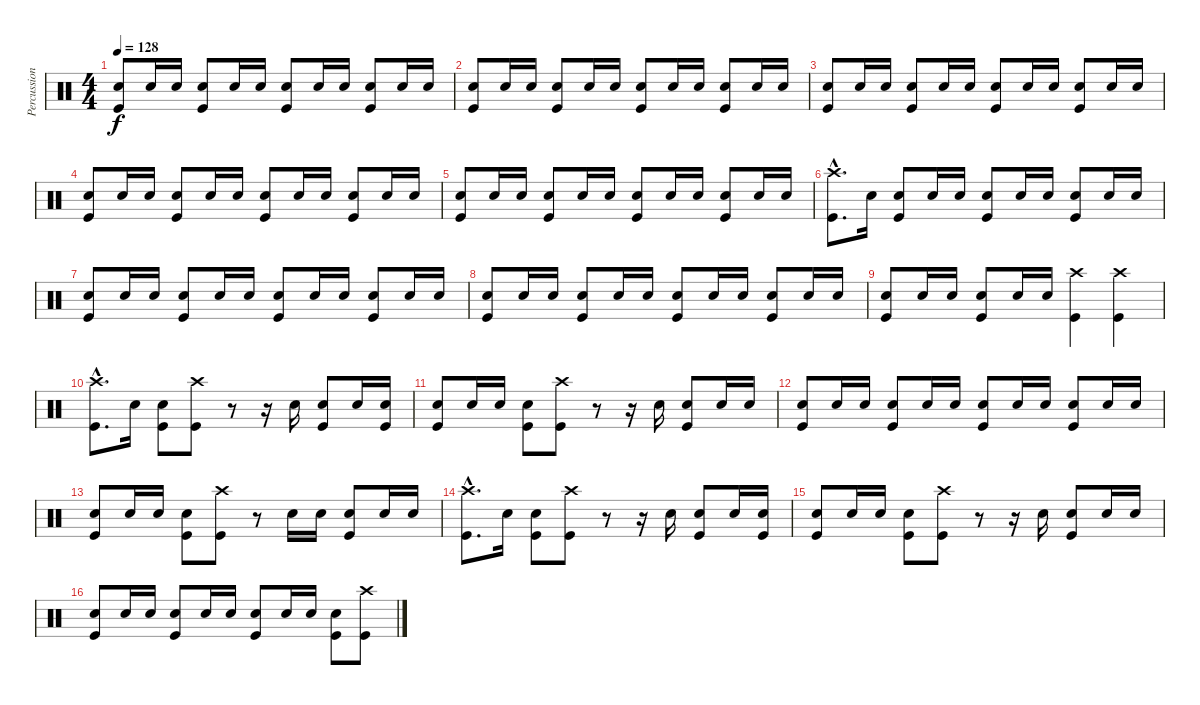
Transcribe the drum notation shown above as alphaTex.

\track ("Percussion" "Percussion") {instrument percussion}
\staff {score}
\articulation defaults
\ts (4 4)
\tempo 128
\clef neutral
\ks c
("Snare (hit) 2" "Kick (hit)").8{dy f} "Snare (hit) 2".16 "Snare (hit) 2".16 ("Snare (hit) 2" "Kick (hit)").8 "Snare (hit) 2".16 "Snare (hit) 2".16 ("Snare (hit) 2" "Kick (hit)").8 "Snare (hit) 2".16 "Snare (hit) 2".16 ("Snare (hit) 2" "Kick (hit)").8 "Snare (hit) 2".16 "Snare (hit) 2".16 |
("Snare (hit) 2" "Kick (hit)").8 "Snare (hit) 2".16 "Snare (hit) 2".16 ("Snare (hit) 2" "Kick (hit)").8 "Snare (hit) 2".16 "Snare (hit) 2".16 ("Snare (hit) 2" "Kick (hit)").8 "Snare (hit) 2".16 "Snare (hit) 2".16 ("Snare (hit) 2" "Kick (hit)").8 "Snare (hit) 2".16 "Snare (hit) 2".16 |
("Snare (hit) 2" "Kick (hit)").8 "Snare (hit) 2".16 "Snare (hit) 2".16 ("Snare (hit) 2" "Kick (hit)").8 "Snare (hit) 2".16 "Snare (hit) 2".16 ("Snare (hit) 2" "Kick (hit)").8 "Snare (hit) 2".16 "Snare (hit) 2".16 ("Snare (hit) 2" "Kick (hit)").8 "Snare (hit) 2".16 "Snare (hit) 2".16 |
("Snare (hit) 2" "Kick (hit)").8 "Snare (hit) 2".16 "Snare (hit) 2".16 ("Snare (hit) 2" "Kick (hit)").8 "Snare (hit) 2".16 "Snare (hit) 2".16 ("Snare (hit) 2" "Kick (hit)").8 "Snare (hit) 2".16 "Snare (hit) 2".16 ("Snare (hit) 2" "Kick (hit)").8 "Snare (hit) 2".16 "Snare (hit) 2".16 |
("Snare (hit) 2" "Kick (hit)").8 "Snare (hit) 2".16 "Snare (hit) 2".16 ("Snare (hit) 2" "Kick (hit)").8 "Snare (hit) 2".16 "Snare (hit) 2".16 ("Snare (hit) 2" "Kick (hit)").8 "Snare (hit) 2".16 "Snare (hit) 2".16 ("Snare (hit) 2" "Kick (hit)").8 "Snare (hit) 2".16 "Snare (hit) 2".16 |
("Crash high (hit)"{hac} "Kick (hit)"{hac}).8{d} "Snare (hit) 2".16 ("Snare (hit) 2" "Kick (hit)").8 "Snare (hit) 2".16 "Snare (hit) 2".16 ("Snare (hit) 2" "Kick (hit)").8 "Snare (hit) 2".16 "Snare (hit) 2".16 ("Snare (hit) 2" "Kick (hit)").8 "Snare (hit) 2".16 "Snare (hit) 2".16 |
("Snare (hit) 2" "Kick (hit)").8 "Snare (hit) 2".16 "Snare (hit) 2".16 ("Snare (hit) 2" "Kick (hit)").8 "Snare (hit) 2".16 "Snare (hit) 2".16 ("Snare (hit) 2" "Kick (hit)").8 "Snare (hit) 2".16 "Snare (hit) 2".16 ("Snare (hit) 2" "Kick (hit)").8 "Snare (hit) 2".16 "Snare (hit) 2".16 |
("Snare (hit) 2" "Kick (hit)").8 "Snare (hit) 2".16 "Snare (hit) 2".16 ("Snare (hit) 2" "Kick (hit)").8 "Snare (hit) 2".16 "Snare (hit) 2".16 ("Snare (hit) 2" "Kick (hit)").8 "Snare (hit) 2".16 "Snare (hit) 2".16 ("Snare (hit) 2" "Kick (hit)").8 "Snare (hit) 2".16 "Snare (hit) 2".16 |
("Snare (hit) 2" "Kick (hit)").8 "Snare (hit) 2".16 "Snare (hit) 2".16 ("Snare (hit) 2" "Kick (hit)").8 "Snare (hit) 2".16 "Snare (hit) 2".16 ("Crash high (hit)" "Kick (hit)").4 ("Crash high (hit)" "Kick (hit)").4 |
("Crash high (hit)"{hac} "Kick (hit)"{hac}).8{d} "Snare (hit) 2".16 ("Snare (hit) 2" "Kick (hit)").8 ("Crash high (hit)" "Kick (hit)").8 r.8 r.16 "Snare (hit) 2".16 ("Snare (hit) 2" "Kick (hit)").8 "Snare (hit) 2".16 ("Snare (hit) 2" "Kick (hit)").16 |
("Snare (hit) 2" "Kick (hit)").8 "Snare (hit) 2".16 "Snare (hit) 2".16 ("Snare (hit) 2" "Kick (hit)").8 ("Crash high (hit)" "Kick (hit)").8 r.8 r.16 "Snare (hit) 2".16 ("Snare (hit) 2" "Kick (hit)").8 "Snare (hit) 2".16 "Snare (hit) 2".16 |
("Snare (hit) 2" "Kick (hit)").8 "Snare (hit) 2".16 "Snare (hit) 2".16 ("Snare (hit) 2" "Kick (hit)").8 "Snare (hit) 2".16 "Snare (hit) 2".16 ("Snare (hit) 2" "Kick (hit)").8 "Snare (hit) 2".16 "Snare (hit) 2".16 ("Snare (hit) 2" "Kick (hit)").8 "Snare (hit) 2".16 "Snare (hit) 2".16 |
("Snare (hit) 2" "Kick (hit)").8 "Snare (hit) 2".16 "Snare (hit) 2".16 ("Snare (hit) 2" "Kick (hit)").8 ("Crash high (hit)" "Kick (hit)").8 r.8 "Snare (hit) 2".16 "Snare (hit) 2".16 ("Snare (hit) 2" "Kick (hit)").8 "Snare (hit) 2".16 "Snare (hit) 2".16 |
("Crash high (hit)"{hac} "Kick (hit)"{hac}).8{d} "Snare (hit) 2".16 ("Snare (hit) 2" "Kick (hit)").8 ("Crash high (hit)" "Kick (hit)").8 r.8 r.16 "Snare (hit) 2".16 ("Snare (hit) 2" "Kick (hit)").8 "Snare (hit) 2".16 ("Snare (hit) 2" "Kick (hit)").16 |
("Snare (hit) 2" "Kick (hit)").8 "Snare (hit) 2".16 "Snare (hit) 2".16 ("Snare (hit) 2" "Kick (hit)").8 ("Crash high (hit)" "Kick (hit)").8 r.8 r.16 "Snare (hit) 2".16 ("Snare (hit) 2" "Kick (hit)").8 "Snare (hit) 2".16 "Snare (hit) 2".16 |
("Snare (hit) 2" "Kick (hit)").8 "Snare (hit) 2".16 "Snare (hit) 2".16 ("Snare (hit) 2" "Kick (hit)").8 "Snare (hit) 2".16 "Snare (hit) 2".16 ("Snare (hit) 2" "Kick (hit)").8 "Snare (hit) 2".16 "Snare (hit) 2".16 ("Snare (hit) 2" "Kick (hit)").8 ("Crash high (hit)" "Kick (hit)").8
